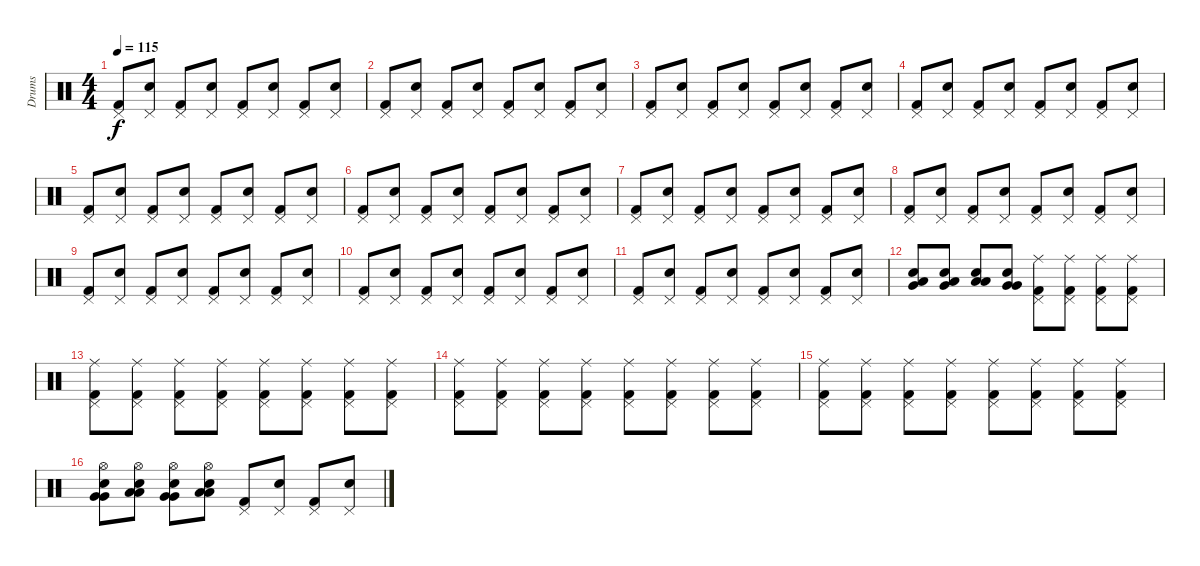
\track ("Drums" "Drums") {instrument percussion}
\staff {score}
\articulation defaults
\ts (4 4)
\tempo 115
\clef neutral
\ks c
("Kick (hit) 2" "Pedal Hi-Hat (hit)").8{dy f} ("Snare (hit) 2" "Pedal Hi-Hat (hit)").8 ("Kick (hit) 2" "Pedal Hi-Hat (hit)").8 ("Snare (hit) 2" "Pedal Hi-Hat (hit)").8 ("Kick (hit) 2" "Pedal Hi-Hat (hit)").8 ("Snare (hit) 2" "Pedal Hi-Hat (hit)").8 ("Kick (hit) 2" "Pedal Hi-Hat (hit)").8 ("Snare (hit) 2" "Pedal Hi-Hat (hit)").8 |
("Kick (hit) 2" "Pedal Hi-Hat (hit)").8 ("Snare (hit) 2" "Pedal Hi-Hat (hit)").8 ("Kick (hit) 2" "Pedal Hi-Hat (hit)").8 ("Snare (hit) 2" "Pedal Hi-Hat (hit)").8 ("Kick (hit) 2" "Pedal Hi-Hat (hit)").8 ("Snare (hit) 2" "Pedal Hi-Hat (hit)").8 ("Kick (hit) 2" "Pedal Hi-Hat (hit)").8 ("Snare (hit) 2" "Pedal Hi-Hat (hit)").8 |
("Kick (hit) 2" "Pedal Hi-Hat (hit)").8 ("Snare (hit) 2" "Pedal Hi-Hat (hit)").8 ("Kick (hit) 2" "Pedal Hi-Hat (hit)").8 ("Snare (hit) 2" "Pedal Hi-Hat (hit)").8 ("Kick (hit) 2" "Pedal Hi-Hat (hit)").8 ("Snare (hit) 2" "Pedal Hi-Hat (hit)").8 ("Kick (hit) 2" "Pedal Hi-Hat (hit)").8 ("Snare (hit) 2" "Pedal Hi-Hat (hit)").8 |
("Kick (hit) 2" "Pedal Hi-Hat (hit)").8 ("Snare (hit) 2" "Pedal Hi-Hat (hit)").8 ("Kick (hit) 2" "Pedal Hi-Hat (hit)").8 ("Snare (hit) 2" "Pedal Hi-Hat (hit)").8 ("Kick (hit) 2" "Pedal Hi-Hat (hit)").8 ("Snare (hit) 2" "Pedal Hi-Hat (hit)").8 ("Kick (hit) 2" "Pedal Hi-Hat (hit)").8 ("Snare (hit) 2" "Pedal Hi-Hat (hit)").8 |
("Kick (hit) 2" "Pedal Hi-Hat (hit)").8 ("Snare (hit) 2" "Pedal Hi-Hat (hit)").8 ("Kick (hit) 2" "Pedal Hi-Hat (hit)").8 ("Snare (hit) 2" "Pedal Hi-Hat (hit)").8 ("Kick (hit) 2" "Pedal Hi-Hat (hit)").8 ("Snare (hit) 2" "Pedal Hi-Hat (hit)").8 ("Kick (hit) 2" "Pedal Hi-Hat (hit)").8 ("Snare (hit) 2" "Pedal Hi-Hat (hit)").8 |
("Kick (hit) 2" "Pedal Hi-Hat (hit)").8 ("Snare (hit) 2" "Pedal Hi-Hat (hit)").8 ("Kick (hit) 2" "Pedal Hi-Hat (hit)").8 ("Snare (hit) 2" "Pedal Hi-Hat (hit)").8 ("Kick (hit) 2" "Pedal Hi-Hat (hit)").8 ("Snare (hit) 2" "Pedal Hi-Hat (hit)").8 ("Kick (hit) 2" "Pedal Hi-Hat (hit)").8 ("Snare (hit) 2" "Pedal Hi-Hat (hit)").8 |
("Kick (hit) 2" "Pedal Hi-Hat (hit)").8 ("Snare (hit) 2" "Pedal Hi-Hat (hit)").8 ("Kick (hit) 2" "Pedal Hi-Hat (hit)").8 ("Snare (hit) 2" "Pedal Hi-Hat (hit)").8 ("Kick (hit) 2" "Pedal Hi-Hat (hit)").8 ("Snare (hit) 2" "Pedal Hi-Hat (hit)").8 ("Kick (hit) 2" "Pedal Hi-Hat (hit)").8 ("Snare (hit) 2" "Pedal Hi-Hat (hit)").8 |
("Kick (hit) 2" "Pedal Hi-Hat (hit)").8 ("Snare (hit) 2" "Pedal Hi-Hat (hit)").8 ("Kick (hit) 2" "Pedal Hi-Hat (hit)").8 ("Snare (hit) 2" "Pedal Hi-Hat (hit)").8 ("Kick (hit) 2" "Pedal Hi-Hat (hit)").8 ("Snare (hit) 2" "Pedal Hi-Hat (hit)").8 ("Kick (hit) 2" "Pedal Hi-Hat (hit)").8 ("Snare (hit) 2" "Pedal Hi-Hat (hit)").8 |
("Kick (hit) 2" "Pedal Hi-Hat (hit)").8 ("Snare (hit) 2" "Pedal Hi-Hat (hit)").8 ("Kick (hit) 2" "Pedal Hi-Hat (hit)").8 ("Snare (hit) 2" "Pedal Hi-Hat (hit)").8 ("Kick (hit) 2" "Pedal Hi-Hat (hit)").8 ("Snare (hit) 2" "Pedal Hi-Hat (hit)").8 ("Kick (hit) 2" "Pedal Hi-Hat (hit)").8 ("Snare (hit) 2" "Pedal Hi-Hat (hit)").8 |
("Kick (hit) 2" "Pedal Hi-Hat (hit)").8 ("Snare (hit) 2" "Pedal Hi-Hat (hit)").8 ("Kick (hit) 2" "Pedal Hi-Hat (hit)").8 ("Snare (hit) 2" "Pedal Hi-Hat (hit)").8 ("Kick (hit) 2" "Pedal Hi-Hat (hit)").8 ("Snare (hit) 2" "Pedal Hi-Hat (hit)").8 ("Kick (hit) 2" "Pedal Hi-Hat (hit)").8 ("Snare (hit) 2" "Pedal Hi-Hat (hit)").8 |
("Kick (hit) 2" "Pedal Hi-Hat (hit)").8 ("Snare (hit) 2" "Pedal Hi-Hat (hit)").8 ("Kick (hit) 2" "Pedal Hi-Hat (hit)").8 ("Snare (hit) 2" "Pedal Hi-Hat (hit)").8 ("Kick (hit) 2" "Pedal Hi-Hat (hit)").8 ("Snare (hit) 2" "Pedal Hi-Hat (hit)").8 ("Kick (hit) 2" "Pedal Hi-Hat (hit)").8 ("Snare (hit) 2" "Pedal Hi-Hat (hit)").8 |
("Snare (hit) 2" "Low Tom (hit)" "Very Low Tom (hit)").8 ("Snare (hit) 2" "Very Low Tom (hit)" "Low Tom (hit)").8 ("Snare (hit) 2" "Low Tom (hit)" "Low Tom (hit)").8 ("Snare (hit) 2" "Very Low Tom (hit)" "Very Low Tom (hit)").8 ("Kick (hit) 2" "Pedal Hi-Hat (hit)" "Ride (middle)").8 ("Kick (hit) 2" "Pedal Hi-Hat (hit)" "Ride (middle)").8 ("Kick (hit) 2" "Pedal Hi-Hat (hit)" "Ride (middle)").8 ("Kick (hit) 2" "Pedal Hi-Hat (hit)" "Ride (middle)").8 |
("Kick (hit) 2" "Pedal Hi-Hat (hit)" "Ride (middle)").8 ("Kick (hit) 2" "Pedal Hi-Hat (hit)" "Ride (middle)").8 ("Kick (hit) 2" "Pedal Hi-Hat (hit)" "Ride (middle)").8 ("Kick (hit) 2" "Pedal Hi-Hat (hit)" "Ride (middle)").8 ("Kick (hit) 2" "Pedal Hi-Hat (hit)" "Ride (middle)").8 ("Kick (hit) 2" "Pedal Hi-Hat (hit)" "Ride (middle)").8 ("Kick (hit) 2" "Pedal Hi-Hat (hit)" "Ride (middle)").8 ("Kick (hit) 2" "Pedal Hi-Hat (hit)" "Ride (middle)").8 |
("Kick (hit) 2" "Pedal Hi-Hat (hit)" "Ride (middle)").8 ("Kick (hit) 2" "Pedal Hi-Hat (hit)" "Ride (middle)").8 ("Kick (hit) 2" "Pedal Hi-Hat (hit)" "Ride (middle)").8 ("Kick (hit) 2" "Pedal Hi-Hat (hit)" "Ride (middle)").8 ("Kick (hit) 2" "Pedal Hi-Hat (hit)" "Ride (middle)").8 ("Kick (hit) 2" "Pedal Hi-Hat (hit)" "Ride (middle)").8 ("Kick (hit) 2" "Pedal Hi-Hat (hit)" "Ride (middle)").8 ("Kick (hit) 2" "Pedal Hi-Hat (hit)" "Ride (middle)").8 |
("Kick (hit) 2" "Pedal Hi-Hat (hit)" "Ride (middle)").8 ("Kick (hit) 2" "Pedal Hi-Hat (hit)" "Ride (middle)").8 ("Kick (hit) 2" "Pedal Hi-Hat (hit)" "Ride (middle)").8 ("Kick (hit) 2" "Pedal Hi-Hat (hit)" "Ride (middle)").8 ("Kick (hit) 2" "Pedal Hi-Hat (hit)" "Ride (middle)").8 ("Kick (hit) 2" "Pedal Hi-Hat (hit)" "Ride (middle)").8 ("Kick (hit) 2" "Pedal Hi-Hat (hit)" "Ride (middle)").8 ("Kick (hit) 2" "Pedal Hi-Hat (hit)" "Ride (middle)").8 |
("Snare (hit) 2" "Very Low Tom (hit)" "Very Low Tom (hit)" "Hi-Hat (open)").8 ("Snare (hit) 2" "Low Tom (hit)" "Low Tom (hit)" "Hi-Hat (open)").8 ("Snare (hit) 2" "Very Low Tom (hit)" "Very Low Tom (hit)" "Hi-Hat (open)").8 ("Snare (hit) 2" "Low Tom (hit)" "Low Tom (hit)" "Hi-Hat (open)").8 ("Kick (hit) 2" "Pedal Hi-Hat (hit)").8 ("Snare (hit) 2" "Pedal Hi-Hat (hit)").8 ("Kick (hit) 2" "Pedal Hi-Hat (hit)").8 ("Snare (hit) 2" "Pedal Hi-Hat (hit)").8
